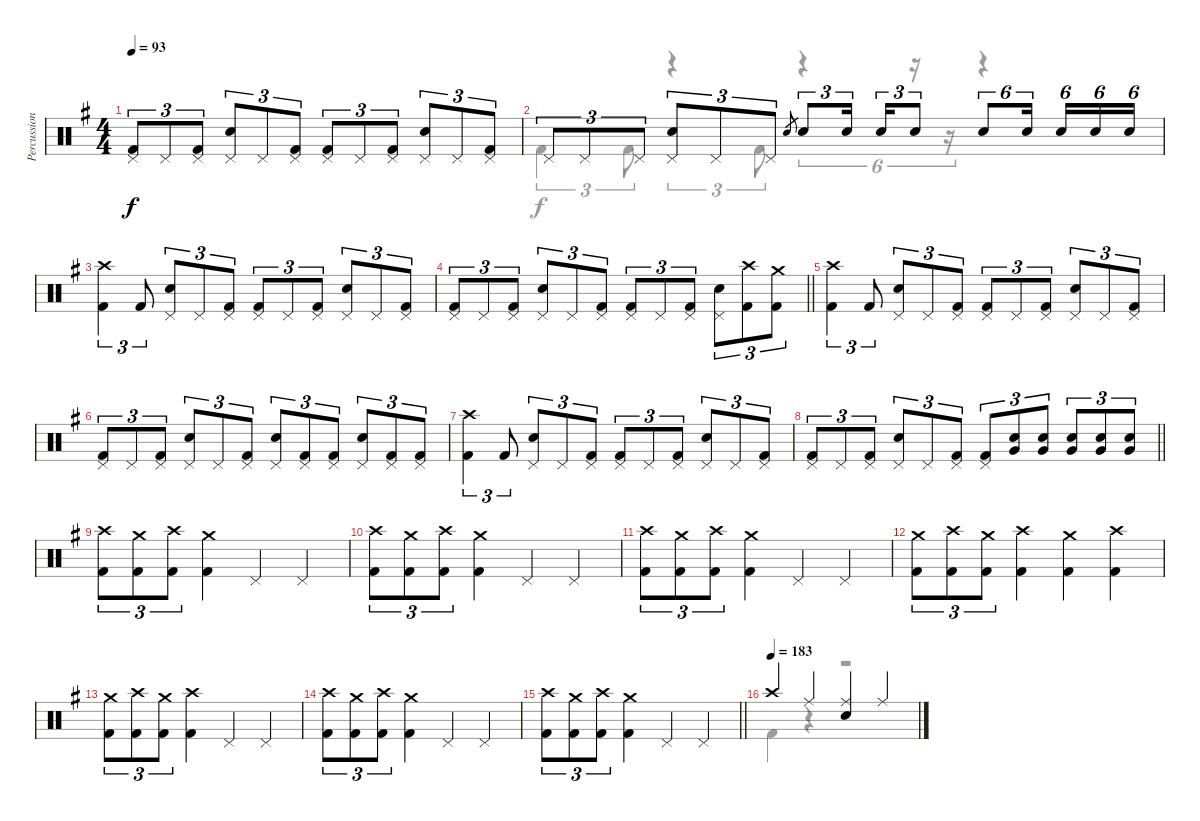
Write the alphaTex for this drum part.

\track ("Percussion" "Percussion") {instrument percussion}
\staff {score}
\articulation defaults
\voice
\ts (4 4)
\tempo 93
\clef neutral
\ks g
("Pedal Hi-Hat (hit)" "Kick (hit) 2").8{tu (3 2) dy f} "Pedal Hi-Hat (hit)".8{tu (3 2)} ("Pedal Hi-Hat (hit)" "Kick (hit) 2").8{tu (3 2)} ("Pedal Hi-Hat (hit)" "Electric Snare (hit)").8{tu (3 2) beam Up} "Pedal Hi-Hat (hit)".8{tu (3 2) beam Up} ("Pedal Hi-Hat (hit)" "Kick (hit) 2").8{tu (3 2) beam Up} ("Pedal Hi-Hat (hit)" "Kick (hit) 2").8{tu (3 2) beam Up} "Pedal Hi-Hat (hit)".8{tu (3 2)} ("Pedal Hi-Hat (hit)" "Kick (hit) 2").8{tu (3 2)} ("Pedal Hi-Hat (hit)" "Electric Snare (hit)").8{tu (3 2)} "Pedal Hi-Hat (hit)".8{tu (3 2)} ("Pedal Hi-Hat (hit)" "Kick (hit) 2").8{tu (3 2)} |
"Pedal Hi-Hat (hit)".8{tu (3 2)} "Pedal Hi-Hat (hit)".8{tu (3 2)} "Pedal Hi-Hat (hit)".8{tu (3 2)} ("Pedal Hi-Hat (hit)" "Electric Snare (hit)").8{tu (3 2)} "Pedal Hi-Hat (hit)".8{tu (3 2)} "Pedal Hi-Hat (hit)".8{tu (3 2)} "Electric Snare (hit)".8{gr} "Electric Snare (hit)".8{tu (3 2) beam Up} "Electric Snare (hit)".16{tu (3 2) beam Up beam splitsecondary} "Electric Snare (hit)".16{tu (3 2) beam Up beam merge} "Electric Snare (hit)".8{tu (3 2) beam Up} "Electric Snare (hit)".8{tu (6 4) beam Up beam merge} "Electric Snare (hit)".16{tu (6 4) beam splitsecondary} "Electric Snare (hit)".16{tu (6 4)} "Electric Snare (hit)".16{tu (6 4) beam merge} "Electric Snare (hit)".16{tu (6 4)} |
("Crash high (hit)" "Kick (hit) 2").4{tu (3 2)} "Kick (hit) 2".8{tu (3 2)} ("Pedal Hi-Hat (hit)" "Electric Snare (hit)").8{tu (3 2) beam Up} "Pedal Hi-Hat (hit)".8{tu (3 2) beam Up} ("Pedal Hi-Hat (hit)" "Kick (hit) 2").8{tu (3 2) beam Up} ("Pedal Hi-Hat (hit)" "Kick (hit) 2").8{tu (3 2) beam Up} "Pedal Hi-Hat (hit)".8{tu (3 2)} ("Pedal Hi-Hat (hit)" "Kick (hit) 2").8{tu (3 2)} ("Pedal Hi-Hat (hit)" "Electric Snare (hit)").8{tu (3 2)} "Pedal Hi-Hat (hit)".8{tu (3 2)} ("Pedal Hi-Hat (hit)" "Kick (hit) 2").8{tu (3 2)} |
\barLineRight lightlight
("Pedal Hi-Hat (hit)" "Kick (hit) 2").8{tu (3 2)} "Pedal Hi-Hat (hit)".8{tu (3 2)} ("Pedal Hi-Hat (hit)" "Kick (hit) 2").8{tu (3 2)} ("Pedal Hi-Hat (hit)" "Electric Snare (hit)").8{tu (3 2) beam Up} "Pedal Hi-Hat (hit)".8{tu (3 2) beam Up} ("Pedal Hi-Hat (hit)" "Kick (hit) 2").8{tu (3 2) beam Up} ("Pedal Hi-Hat (hit)" "Kick (hit) 2").8{tu (3 2) beam Up} "Pedal Hi-Hat (hit)".8{tu (3 2)} ("Pedal Hi-Hat (hit)" "Kick (hit) 2").8{tu (3 2)} ("Pedal Hi-Hat (hit)" "Electric Snare (hit)").8{tu (3 2)} ("Crash high (hit)" "Kick (hit) 2").8{tu (3 2)} ("Crash medium (hit)" "Kick (hit) 2").8{tu (3 2)} |
("Crash high (hit)" "Kick (hit) 2").4{tu (3 2)} "Kick (hit) 2".8{tu (3 2)} ("Pedal Hi-Hat (hit)" "Electric Snare (hit)").8{tu (3 2) beam Up} "Pedal Hi-Hat (hit)".8{tu (3 2) beam Up} ("Pedal Hi-Hat (hit)" "Kick (hit) 2").8{tu (3 2) beam Up} ("Pedal Hi-Hat (hit)" "Kick (hit) 2").8{tu (3 2) beam Up} "Pedal Hi-Hat (hit)".8{tu (3 2)} ("Pedal Hi-Hat (hit)" "Kick (hit) 2").8{tu (3 2)} ("Pedal Hi-Hat (hit)" "Electric Snare (hit)").8{tu (3 2)} "Pedal Hi-Hat (hit)".8{tu (3 2)} ("Pedal Hi-Hat (hit)" "Kick (hit) 2").8{tu (3 2)} |
("Pedal Hi-Hat (hit)" "Kick (hit) 2").8{tu (3 2)} "Pedal Hi-Hat (hit)".8{tu (3 2)} ("Pedal Hi-Hat (hit)" "Kick (hit) 2").8{tu (3 2)} ("Pedal Hi-Hat (hit)" "Electric Snare (hit)").8{tu (3 2) beam Up} "Pedal Hi-Hat (hit)".8{tu (3 2) beam Up} ("Pedal Hi-Hat (hit)" "Kick (hit) 2").8{tu (3 2) beam Up} ("Pedal Hi-Hat (hit)" "Electric Snare (hit)").8{tu (3 2) beam Up} ("Pedal Hi-Hat (hit)" "Kick (hit) 2").8{tu (3 2)} ("Pedal Hi-Hat (hit)" "Kick (hit) 2").8{tu (3 2)} ("Pedal Hi-Hat (hit)" "Electric Snare (hit)").8{tu (3 2)} ("Pedal Hi-Hat (hit)" "Kick (hit) 2").8{tu (3 2)} ("Pedal Hi-Hat (hit)" "Kick (hit) 2").8{tu (3 2)} |
("Crash high (hit)" "Kick (hit) 2").4{tu (3 2)} "Kick (hit) 2".8{tu (3 2)} ("Pedal Hi-Hat (hit)" "Electric Snare (hit)").8{tu (3 2) beam Up} "Pedal Hi-Hat (hit)".8{tu (3 2) beam Up} ("Pedal Hi-Hat (hit)" "Kick (hit) 2").8{tu (3 2) beam Up} ("Pedal Hi-Hat (hit)" "Kick (hit) 2").8{tu (3 2) beam Up} "Pedal Hi-Hat (hit)".8{tu (3 2)} ("Pedal Hi-Hat (hit)" "Kick (hit) 2").8{tu (3 2)} ("Pedal Hi-Hat (hit)" "Electric Snare (hit)").8{tu (3 2)} "Pedal Hi-Hat (hit)".8{tu (3 2)} ("Pedal Hi-Hat (hit)" "Kick (hit) 2").8{tu (3 2)} |
\barLineRight lightlight
("Pedal Hi-Hat (hit)" "Kick (hit) 2").8{tu (3 2)} "Pedal Hi-Hat (hit)".8{tu (3 2)} ("Pedal Hi-Hat (hit)" "Kick (hit) 2").8{tu (3 2)} ("Pedal Hi-Hat (hit)" "Electric Snare (hit)").8{tu (3 2) beam Up} "Pedal Hi-Hat (hit)".8{tu (3 2) beam Up} ("Pedal Hi-Hat (hit)" "Kick (hit) 2").8{tu (3 2) beam Up} ("Pedal Hi-Hat (hit)" "Kick (hit) 2").8{tu (3 2) beam Up} ("Electric Snare (hit)" "Very Low Tom (hit)").8{tu (3 2)} ("Electric Snare (hit)" "Very Low Tom (hit)").8{tu (3 2)} ("Electric Snare (hit)" "Very Low Tom (hit)").8{tu (3 2)} ("Electric Snare (hit)" "Very Low Tom (hit)").8{tu (3 2)} ("Electric Snare (hit)" "Very Low Tom (hit)").8{tu (3 2)} |
("Crash high (hit)" "Kick (hit) 2").8{tu (3 2)} ("Crash medium (hit)" "Kick (hit) 2").8{tu (3 2)} ("Crash high (hit)" "Kick (hit) 2").8{tu (3 2)} ("Crash medium (hit)" "Kick (hit) 2").4 "Pedal Hi-Hat (hit)".4 "Pedal Hi-Hat (hit)".4 |
("Crash high (hit)" "Kick (hit) 2").8{tu (3 2)} ("Crash medium (hit)" "Kick (hit) 2").8{tu (3 2)} ("Crash high (hit)" "Kick (hit) 2").8{tu (3 2)} ("Crash medium (hit)" "Kick (hit) 2").4 "Pedal Hi-Hat (hit)".4 "Pedal Hi-Hat (hit)".4 |
("Crash high (hit)" "Kick (hit) 2").8{tu (3 2)} ("Crash medium (hit)" "Kick (hit) 2").8{tu (3 2)} ("Crash high (hit)" "Kick (hit) 2").8{tu (3 2)} ("Crash medium (hit)" "Kick (hit) 2").4 "Pedal Hi-Hat (hit)".4 "Pedal Hi-Hat (hit)".4 |
("Crash medium (hit)" "Kick (hit) 2").8{tu (3 2)} ("Crash high (hit)" "Kick (hit) 2").8{tu (3 2)} ("Crash medium (hit)" "Kick (hit) 2").8{tu (3 2)} ("Crash high (hit)" "Kick (hit) 2").4 ("Crash medium (hit)" "Kick (hit) 2").4 ("Crash high (hit)" "Kick (hit) 2").4 |
("Crash medium (hit)" "Kick (hit) 2").8{tu (3 2)} ("Crash high (hit)" "Kick (hit) 2").8{tu (3 2)} ("Crash medium (hit)" "Kick (hit) 2").8{tu (3 2)} ("Crash high (hit)" "Kick (hit) 2").4 "Pedal Hi-Hat (hit)".4 "Pedal Hi-Hat (hit)".4 |
("Crash high (hit)" "Kick (hit) 2").8{tu (3 2)} ("Crash medium (hit)" "Kick (hit) 2").8{tu (3 2)} ("Crash high (hit)" "Kick (hit) 2").8{tu (3 2)} ("Crash medium (hit)" "Kick (hit) 2").4 "Pedal Hi-Hat (hit)".4 "Pedal Hi-Hat (hit)".4 |
\barLineRight lightlight
("Crash high (hit)" "Kick (hit) 2").8{tu (3 2)} ("Crash medium (hit)" "Kick (hit) 2").8{tu (3 2)} ("Crash high (hit)" "Kick (hit) 2").8{tu (3 2)} ("Crash medium (hit)" "Kick (hit) 2").4 "Pedal Hi-Hat (hit)".4 "Pedal Hi-Hat (hit)".4 |
\tempo (183)
"Crash high (hit)".4{beam Up} "Ride (middle)".4{beam Up} ("Ride (middle)" "Electric Snare (hit)").4{beam Up} "Ride (middle)".4{beam Up}
\voice
\clef neutral
\ottava regular
\simile none
\ks g
|
"Kick (hit) 2".4{tu (3 2)} "Kick (hit) 2".8{tu (3 2)} r.4{tu (3 2)} "Kick (hit) 2".8{tu (3 2)} r.4{tu (6 4)} r.16{tu (6 4)} r.16{tu (6 4)} r.4 |
|
\barLineRight lightlight
|
|
|
|
\barLineRight lightlight
|
|
|
|
|
|
|
\barLineRight lightlight
|
"Kick (hit) 2".4 r.4 r.2
